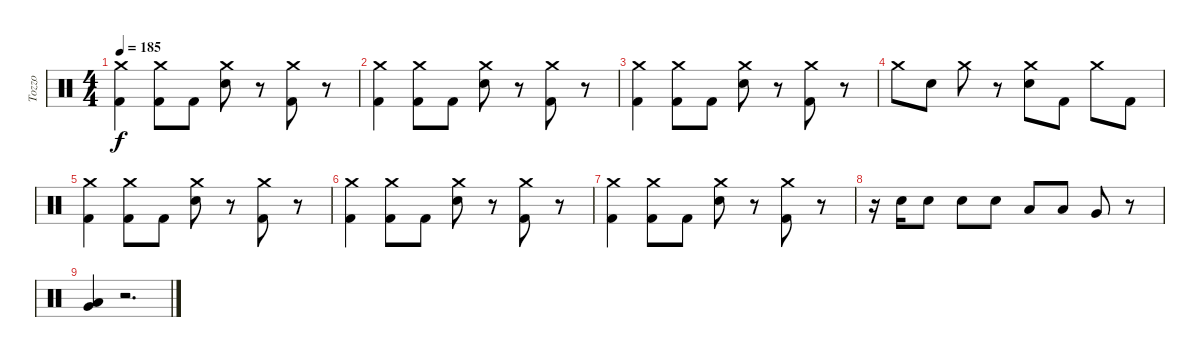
\track ("Tozzo" "Tozzo") {instrument percussion}
\staff {score}
\articulation defaults
\ts (4 4)
\tempo 185
\clef neutral
\ks c
("Crash medium (hit)" "Kick (hit) 2").4{dy f} ("Crash medium (hit)" "Kick (hit) 2").8 "Kick (hit) 2".8 ("Crash medium (hit)" "Electric Snare (hit)").8 r.8 ("Crash medium (hit)" "Kick (hit) 2").8 r.8 |
("Crash medium (hit)" "Kick (hit) 2").4 ("Crash medium (hit)" "Kick (hit) 2").8 "Kick (hit) 2".8 ("Crash medium (hit)" "Electric Snare (hit)").8 r.8 ("Crash medium (hit)" "Kick (hit) 2").8 r.8 |
("Crash medium (hit)" "Kick (hit) 2").4 ("Crash medium (hit)" "Kick (hit) 2").8 "Kick (hit) 2".8 ("Crash medium (hit)" "Electric Snare (hit)").8 r.8 ("Crash medium (hit)" "Kick (hit) 2").8 r.8 |
"Crash medium (hit)".8 "Electric Snare (hit)".8 "Crash medium (hit)".8 r.8 ("Crash medium (hit)" "Electric Snare (hit)").8 "Kick (hit) 2".8 "Crash medium (hit)".8 "Kick (hit) 2".8 |
("Crash medium (hit)" "Kick (hit) 2").4 ("Crash medium (hit)" "Kick (hit) 2").8 "Kick (hit) 2".8 ("Crash medium (hit)" "Electric Snare (hit)").8 r.8 ("Crash medium (hit)" "Kick (hit) 2").8 r.8 |
("Crash medium (hit)" "Kick (hit) 2").4 ("Crash medium (hit)" "Kick (hit) 2").8 "Kick (hit) 2".8 ("Crash medium (hit)" "Electric Snare (hit)").8 r.8 ("Crash medium (hit)" "Kick (hit) 2").8 r.8 |
("Crash medium (hit)" "Kick (hit) 2").4 ("Crash medium (hit)" "Kick (hit) 2").8 "Kick (hit) 2".8 ("Crash medium (hit)" "Electric Snare (hit)").8 r.8 ("Crash medium (hit)" "Kick (hit) 2").8 r.8 |
r.16 "Electric Snare (hit)".16 "Electric Snare (hit)".8 "Electric Snare (hit)".8 "Electric Snare (hit)".8 "Low Tom (hit)".8 "Low Tom (hit)".8 "Very Low Tom (hit)".8 r.8 |
("Low Tom (hit)" "Very Low Tom (hit)").4 r.2{d}
